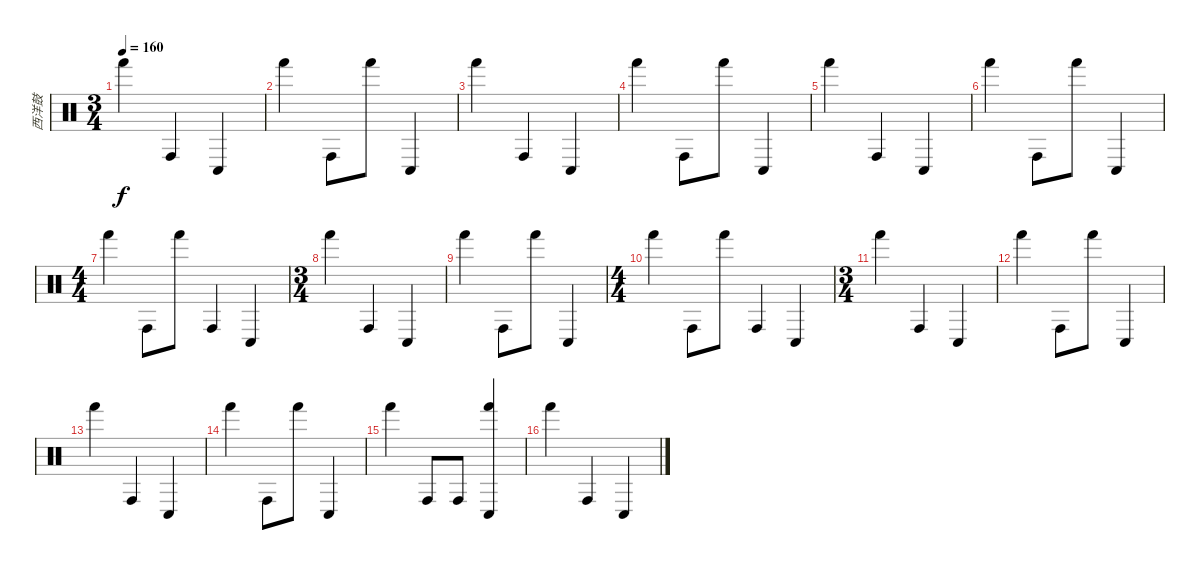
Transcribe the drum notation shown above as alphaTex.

\track ("西洋鼓" "西洋鼓") {instrument percussion}
\staff {score}
\articulation defaults
\ts (3 4)
\tempo 160
\clef neutral
\ks c "Hand (hit)".4{dy f} "Conga high (hit)".4 "Conga low (hit)".4
|
"Hand (hit)".4 "Conga high (hit)".8 "Hand (hit)".8 "Conga low (hit)".4 |
"Hand (hit)".4 "Conga high (hit)".4 "Conga low (hit)".4 |
"Hand (hit)".4 "Conga high (hit)".8 "Hand (hit)".8 "Conga low (hit)".4 |
"Hand (hit)".4 "Conga high (hit)".4 "Conga low (hit)".4 |
"Hand (hit)".4 "Conga high (hit)".8 "Hand (hit)".8 "Conga low (hit)".4 |
\ts (4 4)
"Hand (hit)".4 "Conga high (hit)".8 "Hand (hit)".8 "Conga high (hit)".4 "Conga low (hit)".4 |
\ts (3 4)
"Hand (hit)".4 "Conga high (hit)".4 "Conga low (hit)".4 |
"Hand (hit)".4 "Conga high (hit)".8 "Hand (hit)".8 "Conga low (hit)".4 |
\ts (4 4)
"Hand (hit)".4 "Conga high (hit)".8 "Hand (hit)".8 "Conga high (hit)".4 "Conga low (hit)".4 |
\ts (3 4)
"Hand (hit)".4 "Conga high (hit)".4 "Conga low (hit)".4 |
"Hand (hit)".4 "Conga high (hit)".8 "Hand (hit)".8 "Conga low (hit)".4 |
"Hand (hit)".4 "Conga high (hit)".4 "Conga low (hit)".4 |
"Hand (hit)".4 "Conga high (hit)".8 "Hand (hit)".8 "Conga low (hit)".4 |
"Hand (hit)".4 "Conga high (hit)".8 "Conga high (hit)".8 ("Hand (hit)" "Conga low (hit)").4 |
"Hand (hit)".4 "Conga high (hit)".4 "Conga low (hit)".4
